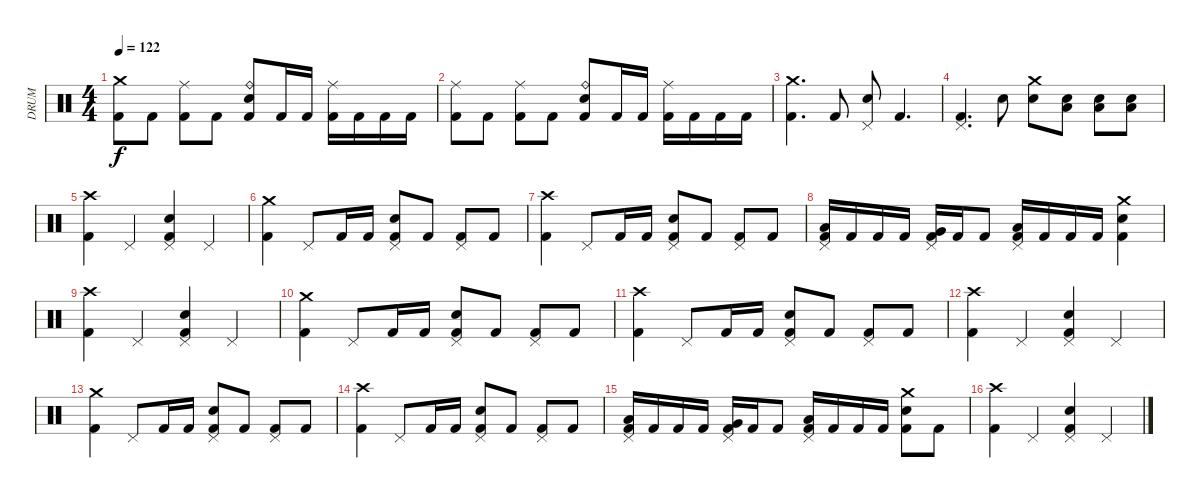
\track ("DRUM" "DRUM") {instrument percussion}
\staff {score}
\articulation defaults
\ts (4 4)
\tempo 122
\clef neutral
\ks c
("Crash medium (hit)" "Kick (hit) 2").8{dy f} "Kick (hit) 2".8 ("Ride (middle)" "Kick (hit) 2").8 "Kick (hit) 2".8 ("Ride (bell)" "Electric Snare (hit)" "Kick (hit) 2").8 "Kick (hit) 2".16 "Kick (hit) 2".16 ("Ride (middle)" "Kick (hit) 2").16 "Kick (hit) 2".16 "Kick (hit) 2".16 "Kick (hit) 2".16 |
("Ride (middle)" "Kick (hit) 2").8 "Kick (hit) 2".8 ("Ride (middle)" "Kick (hit) 2").8 "Kick (hit) 2".8 ("Ride (bell)" "Electric Snare (hit)" "Kick (hit) 2").8 "Kick (hit) 2".16 "Kick (hit) 2".16 ("Ride (middle)" "Kick (hit) 2").16 "Kick (hit) 2".16 "Kick (hit) 2".16 "Kick (hit) 2".16 |
("Kick (hit) 2" "Crash medium (hit)").4{d} "Kick (hit) 2".8 ("Snare (hit) 2" "Pedal Hi-Hat (hit)").8 "Kick (hit) 2".4{d} |
("Kick (hit) 2" "Pedal Hi-Hat (hit)").4{d} "Electric Snare (hit)".8 ("Electric Snare (hit)" "Crash medium (hit)").8 ("Electric Snare (hit)" "Low Floor Tom (hit)").8 ("Electric Snare (hit)" "Low Floor Tom (hit)").8 ("Electric Snare (hit)" "Low Floor Tom (hit)").8 |
("Crash high (hit)" "Kick (hit) 2").4 "Pedal Hi-Hat (hit)".4 ("Pedal Hi-Hat (hit)" "Electric Snare (hit)" "Kick (hit) 2").4 "Pedal Hi-Hat (hit)".4 |
("Crash medium (hit)" "Kick (hit) 2").4 "Pedal Hi-Hat (hit)".8 "Kick (hit) 2".16 "Kick (hit) 2".16 ("Pedal Hi-Hat (hit)" "Electric Snare (hit)" "Kick (hit) 2").8 "Kick (hit) 2".8 ("Pedal Hi-Hat (hit)" "Kick (hit) 2").8 "Kick (hit) 2".8 |
("Crash high (hit)" "Kick (hit) 2").4 "Pedal Hi-Hat (hit)".8 "Kick (hit) 2".16 "Kick (hit) 2".16 ("Pedal Hi-Hat (hit)" "Electric Snare (hit)" "Kick (hit) 2").8 "Kick (hit) 2".8 ("Pedal Hi-Hat (hit)" "Kick (hit) 2").8 "Kick (hit) 2".8 |
("Low Tom (hit)" "Kick (hit) 2" "Pedal Hi-Hat (hit)").16 "Kick (hit) 2".16 "Kick (hit) 2".16 "Kick (hit) 2".16 ("Very Low Tom (hit)" "Kick (hit) 2" "Pedal Hi-Hat (hit)").16 "Kick (hit) 2".16 "Kick (hit) 2".8 ("Low Floor Tom (hit)" "Kick (hit) 2" "Pedal Hi-Hat (hit)").16 "Kick (hit) 2".16 "Kick (hit) 2".16 "Kick (hit) 2".16 ("Crash medium (hit)" "Electric Snare (hit)" "Kick (hit) 2").4 |
("Crash high (hit)" "Kick (hit) 2").4 "Pedal Hi-Hat (hit)".4 ("Pedal Hi-Hat (hit)" "Electric Snare (hit)" "Kick (hit) 2").4 "Pedal Hi-Hat (hit)".4 |
("Crash medium (hit)" "Kick (hit) 2").4 "Pedal Hi-Hat (hit)".8 "Kick (hit) 2".16 "Kick (hit) 2".16 ("Pedal Hi-Hat (hit)" "Electric Snare (hit)" "Kick (hit) 2").8 "Kick (hit) 2".8 ("Pedal Hi-Hat (hit)" "Kick (hit) 2").8 "Kick (hit) 2".8 |
("Crash high (hit)" "Kick (hit) 2").4 "Pedal Hi-Hat (hit)".8 "Kick (hit) 2".16 "Kick (hit) 2".16 ("Pedal Hi-Hat (hit)" "Electric Snare (hit)" "Kick (hit) 2").8 "Kick (hit) 2".8 ("Pedal Hi-Hat (hit)" "Kick (hit) 2").8 "Kick (hit) 2".8 |
("Crash high (hit)" "Kick (hit) 2").4 "Pedal Hi-Hat (hit)".4 ("Pedal Hi-Hat (hit)" "Electric Snare (hit)" "Kick (hit) 2").4 "Pedal Hi-Hat (hit)".4 |
("Crash medium (hit)" "Kick (hit) 2").4 "Pedal Hi-Hat (hit)".8 "Kick (hit) 2".16 "Kick (hit) 2".16 ("Pedal Hi-Hat (hit)" "Electric Snare (hit)" "Kick (hit) 2").8 "Kick (hit) 2".8 ("Pedal Hi-Hat (hit)" "Kick (hit) 2").8 "Kick (hit) 2".8 |
("Crash high (hit)" "Kick (hit) 2").4 "Pedal Hi-Hat (hit)".8 "Kick (hit) 2".16 "Kick (hit) 2".16 ("Pedal Hi-Hat (hit)" "Electric Snare (hit)" "Kick (hit) 2").8 "Kick (hit) 2".8 ("Pedal Hi-Hat (hit)" "Kick (hit) 2").8 "Kick (hit) 2".8 |
("Low Tom (hit)" "Kick (hit) 2" "Pedal Hi-Hat (hit)").16 "Kick (hit) 2".16 "Kick (hit) 2".16 "Kick (hit) 2".16 ("Very Low Tom (hit)" "Kick (hit) 2" "Pedal Hi-Hat (hit)").16 "Kick (hit) 2".16 "Kick (hit) 2".8 ("Low Floor Tom (hit)" "Kick (hit) 2" "Pedal Hi-Hat (hit)").16 "Kick (hit) 2".16 "Kick (hit) 2".16 "Kick (hit) 2".16 ("Crash medium (hit)" "Electric Snare (hit)" "Kick (hit) 2").8 "Kick (hit) 2".8 |
("Crash high (hit)" "Kick (hit) 2").4 "Pedal Hi-Hat (hit)".4 ("Pedal Hi-Hat (hit)" "Electric Snare (hit)" "Kick (hit) 2").4 "Pedal Hi-Hat (hit)".4
